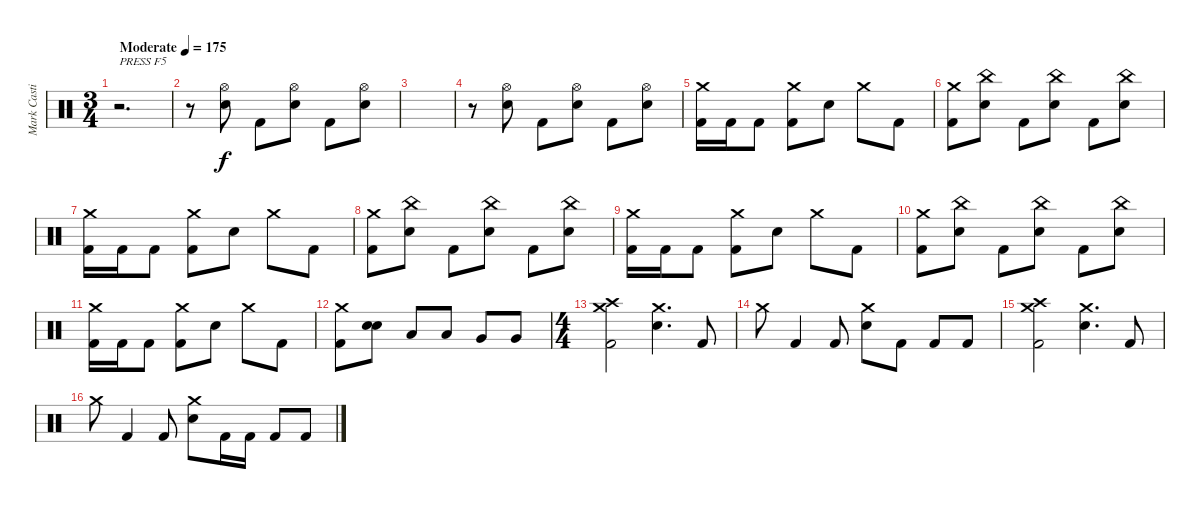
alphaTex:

\track ("Mark Castillo" "Mark Casti") {instrument percussion}
\staff {score}
\articulation defaults
\ts (3 4)
\tempo (175 "Moderate")
\clef neutral
\ks c
r.2{d txt "PRESS F5" dy f} |
r.8 ("Hi-Hat (open)" "Electric Snare (hit)").8 "Kick (hit) 2".8 ("Hi-Hat (open)" "Electric Snare (hit)").8 "Kick (hit) 2".8 ("Hi-Hat (open)" "Electric Snare (hit)").8 |
|
r.8 ("Hi-Hat (open)" "Electric Snare (hit)").8 "Kick (hit) 2".8 ("Hi-Hat (open)" "Electric Snare (hit)").8 "Kick (hit) 2".8 ("Hi-Hat (open)" "Electric Snare (hit)").8 |
("Crash medium (hit)" "Kick (hit) 2").16 "Kick (hit) 2".16 "Kick (hit) 2".8 ("Crash medium (hit)" "Kick (hit) 2").8 "Electric Snare (hit)".8 "Crash medium (hit)".8 "Kick (hit) 2".8 |
("Crash medium (hit)" "Kick (hit) 2").8 ("China (hit)" "Electric Snare (hit)").8 "Kick (hit) 2".8 ("China (hit)" "Electric Snare (hit)").8 "Kick (hit) 2".8 ("China (hit)" "Electric Snare (hit)").8 |
("Crash medium (hit)" "Kick (hit) 2").16 "Kick (hit) 2".16 "Kick (hit) 2".8 ("Crash medium (hit)" "Kick (hit) 2").8 "Electric Snare (hit)".8 "Crash medium (hit)".8 "Kick (hit) 2".8 |
("Crash medium (hit)" "Kick (hit) 2").8 ("China (hit)" "Electric Snare (hit)").8 "Kick (hit) 2".8 ("China (hit)" "Electric Snare (hit)").8 "Kick (hit) 2".8 ("China (hit)" "Electric Snare (hit)").8 |
("Crash medium (hit)" "Kick (hit) 2").16 "Kick (hit) 2".16 "Kick (hit) 2".8 ("Crash medium (hit)" "Kick (hit) 2").8 "Electric Snare (hit)".8 "Crash medium (hit)".8 "Kick (hit) 2".8 |
("Crash medium (hit)" "Kick (hit) 2").8 ("China (hit)" "Electric Snare (hit)").8 "Kick (hit) 2".8 ("China (hit)" "Electric Snare (hit)").8 "Kick (hit) 2".8 ("China (hit)" "Electric Snare (hit)").8 |
("Crash medium (hit)" "Kick (hit) 2").16 "Kick (hit) 2".16 "Kick (hit) 2".8 ("Crash medium (hit)" "Kick (hit) 2").8 "Electric Snare (hit)".8 "Crash medium (hit)".8 "Kick (hit) 2".8 |
("Crash medium (hit)" "Kick (hit) 2").8 ("Electric Snare (hit)" "Electric Snare (hit)").8{bd 120} "Low Tom (hit)".8 "Low Tom (hit)".8 "Very Low Tom (hit)".8 "Very Low Tom (hit)".8 |
\ts (4 4)
("Crash high (hit)" "Crash medium (hit)" "Kick (hit) 2").2 ("Crash medium (hit)" "Electric Snare (hit)").4{d} "Kick (hit) 2".8 |
"Crash medium (hit)".8 "Kick (hit) 2".4 "Kick (hit) 2".8 ("Crash medium (hit)" "Electric Snare (hit)").8 "Kick (hit) 2".8 "Kick (hit) 2".8 "Kick (hit) 2".8 |
("Crash high (hit)" "Crash medium (hit)" "Kick (hit) 2").2 ("Crash medium (hit)" "Electric Snare (hit)").4{d} "Kick (hit) 2".8 |
"Crash medium (hit)".8 "Kick (hit) 2".4 "Kick (hit) 2".8 ("Crash medium (hit)" "Electric Snare (hit)").8 "Kick (hit) 2".16 "Kick (hit) 2".16 "Kick (hit) 2".8 "Kick (hit) 2".8
